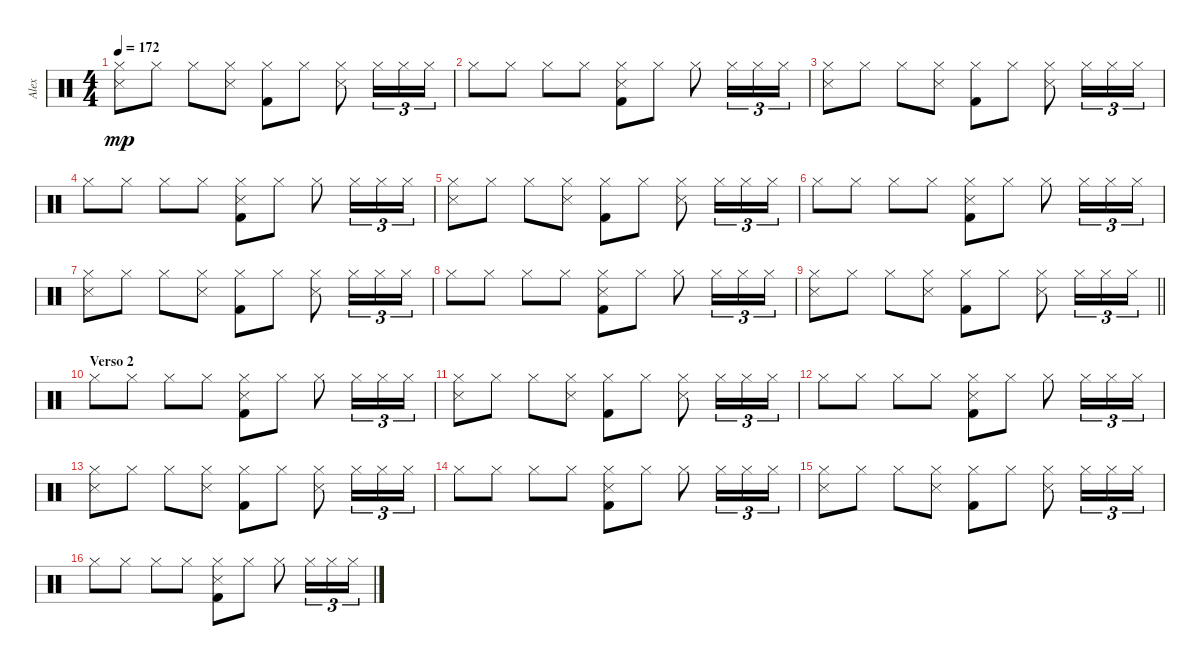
\track ("Alex" "Alex") {instrument percussion}
\staff {score}
\articulation defaults
\ts (4 4)
\tempo 172
\clef neutral
\ks c
("Hi-Hat (closed)" "Snare (side stick) 3").8{dy mp} "Hi-Hat (closed)".8 "Hi-Hat (closed)".8 ("Hi-Hat (closed)" "Snare (side stick) 3").8 ("Hi-Hat (closed)" "Kick (hit) 2").8 "Hi-Hat (closed)".8 ("Hi-Hat (closed)" "Snare (side stick) 3").8 "Hi-Hat (closed)".16{tu (3 2)} "Hi-Hat (closed)".16{tu (3 2)} "Hi-Hat (closed)".16{tu (3 2)} |
"Hi-Hat (closed)".8 "Hi-Hat (closed)".8 "Hi-Hat (closed)".8 "Hi-Hat (closed)".8 ("Hi-Hat (closed)" "Snare (side stick) 3" "Kick (hit) 2").8 "Hi-Hat (closed)".8 "Hi-Hat (closed)".8 "Hi-Hat (closed)".16{tu (3 2)} "Hi-Hat (closed)".16{tu (3 2)} "Hi-Hat (closed)".16{tu (3 2)} |
("Hi-Hat (closed)" "Snare (side stick) 3").8 "Hi-Hat (closed)".8 "Hi-Hat (closed)".8 ("Hi-Hat (closed)" "Snare (side stick) 3").8 ("Hi-Hat (closed)" "Kick (hit) 2").8 "Hi-Hat (closed)".8 ("Hi-Hat (closed)" "Snare (side stick) 3").8 "Hi-Hat (closed)".16{tu (3 2)} "Hi-Hat (closed)".16{tu (3 2)} "Hi-Hat (closed)".16{tu (3 2)} |
"Hi-Hat (closed)".8 "Hi-Hat (closed)".8 "Hi-Hat (closed)".8 "Hi-Hat (closed)".8 ("Hi-Hat (closed)" "Snare (side stick) 3" "Kick (hit) 2").8 "Hi-Hat (closed)".8 "Hi-Hat (closed)".8 "Hi-Hat (closed)".16{tu (3 2)} "Hi-Hat (closed)".16{tu (3 2)} "Hi-Hat (closed)".16{tu (3 2)} |
("Hi-Hat (closed)" "Snare (side stick) 3").8 "Hi-Hat (closed)".8 "Hi-Hat (closed)".8 ("Hi-Hat (closed)" "Snare (side stick) 3").8 ("Hi-Hat (closed)" "Kick (hit) 2").8 "Hi-Hat (closed)".8 ("Hi-Hat (closed)" "Snare (side stick) 3").8 "Hi-Hat (closed)".16{tu (3 2)} "Hi-Hat (closed)".16{tu (3 2)} "Hi-Hat (closed)".16{tu (3 2)} |
"Hi-Hat (closed)".8 "Hi-Hat (closed)".8 "Hi-Hat (closed)".8 "Hi-Hat (closed)".8 ("Hi-Hat (closed)" "Snare (side stick) 3" "Kick (hit) 2").8 "Hi-Hat (closed)".8 "Hi-Hat (closed)".8 "Hi-Hat (closed)".16{tu (3 2)} "Hi-Hat (closed)".16{tu (3 2)} "Hi-Hat (closed)".16{tu (3 2)} |
("Hi-Hat (closed)" "Snare (side stick) 3").8 "Hi-Hat (closed)".8 "Hi-Hat (closed)".8 ("Hi-Hat (closed)" "Snare (side stick) 3").8 ("Hi-Hat (closed)" "Kick (hit) 2").8 "Hi-Hat (closed)".8 ("Hi-Hat (closed)" "Snare (side stick) 3").8 "Hi-Hat (closed)".16{tu (3 2)} "Hi-Hat (closed)".16{tu (3 2)} "Hi-Hat (closed)".16{tu (3 2)} |
"Hi-Hat (closed)".8 "Hi-Hat (closed)".8 "Hi-Hat (closed)".8 "Hi-Hat (closed)".8 ("Hi-Hat (closed)" "Snare (side stick) 3" "Kick (hit) 2").8 "Hi-Hat (closed)".8 "Hi-Hat (closed)".8 "Hi-Hat (closed)".16{tu (3 2)} "Hi-Hat (closed)".16{tu (3 2)} "Hi-Hat (closed)".16{tu (3 2)} |
\barLineRight lightlight
("Hi-Hat (closed)" "Snare (side stick) 3").8 "Hi-Hat (closed)".8 "Hi-Hat (closed)".8 ("Hi-Hat (closed)" "Snare (side stick) 3").8 ("Hi-Hat (closed)" "Kick (hit) 2").8 "Hi-Hat (closed)".8 ("Hi-Hat (closed)" "Snare (side stick) 3").8 "Hi-Hat (closed)".16{tu (3 2)} "Hi-Hat (closed)".16{tu (3 2)} "Hi-Hat (closed)".16{tu (3 2)} |
\section ("" "Verso 2")
"Hi-Hat (closed)".8 "Hi-Hat (closed)".8 "Hi-Hat (closed)".8 "Hi-Hat (closed)".8 ("Hi-Hat (closed)" "Snare (side stick) 3" "Kick (hit) 2").8 "Hi-Hat (closed)".8 "Hi-Hat (closed)".8 "Hi-Hat (closed)".16{tu (3 2)} "Hi-Hat (closed)".16{tu (3 2)} "Hi-Hat (closed)".16{tu (3 2)} |
("Hi-Hat (closed)" "Snare (side stick) 3").8 "Hi-Hat (closed)".8 "Hi-Hat (closed)".8 ("Hi-Hat (closed)" "Snare (side stick) 3").8 ("Hi-Hat (closed)" "Kick (hit) 2").8 "Hi-Hat (closed)".8 ("Hi-Hat (closed)" "Snare (side stick) 3").8 "Hi-Hat (closed)".16{tu (3 2)} "Hi-Hat (closed)".16{tu (3 2)} "Hi-Hat (closed)".16{tu (3 2)} |
"Hi-Hat (closed)".8 "Hi-Hat (closed)".8 "Hi-Hat (closed)".8 "Hi-Hat (closed)".8 ("Hi-Hat (closed)" "Snare (side stick) 3" "Kick (hit) 2").8 "Hi-Hat (closed)".8 "Hi-Hat (closed)".8 "Hi-Hat (closed)".16{tu (3 2)} "Hi-Hat (closed)".16{tu (3 2)} "Hi-Hat (closed)".16{tu (3 2)} |
("Hi-Hat (closed)" "Snare (side stick) 3").8 "Hi-Hat (closed)".8 "Hi-Hat (closed)".8 ("Hi-Hat (closed)" "Snare (side stick) 3").8 ("Hi-Hat (closed)" "Kick (hit) 2").8 "Hi-Hat (closed)".8 ("Hi-Hat (closed)" "Snare (side stick) 3").8 "Hi-Hat (closed)".16{tu (3 2)} "Hi-Hat (closed)".16{tu (3 2)} "Hi-Hat (closed)".16{tu (3 2)} |
"Hi-Hat (closed)".8 "Hi-Hat (closed)".8 "Hi-Hat (closed)".8 "Hi-Hat (closed)".8 ("Hi-Hat (closed)" "Snare (side stick) 3" "Kick (hit) 2").8 "Hi-Hat (closed)".8 "Hi-Hat (closed)".8 "Hi-Hat (closed)".16{tu (3 2)} "Hi-Hat (closed)".16{tu (3 2)} "Hi-Hat (closed)".16{tu (3 2)} |
("Hi-Hat (closed)" "Snare (side stick) 3").8 "Hi-Hat (closed)".8 "Hi-Hat (closed)".8 ("Hi-Hat (closed)" "Snare (side stick) 3").8 ("Hi-Hat (closed)" "Kick (hit) 2").8 "Hi-Hat (closed)".8 ("Hi-Hat (closed)" "Snare (side stick) 3").8 "Hi-Hat (closed)".16{tu (3 2)} "Hi-Hat (closed)".16{tu (3 2)} "Hi-Hat (closed)".16{tu (3 2)} |
"Hi-Hat (closed)".8 "Hi-Hat (closed)".8 "Hi-Hat (closed)".8 "Hi-Hat (closed)".8 ("Hi-Hat (closed)" "Snare (side stick) 3" "Kick (hit) 2").8 "Hi-Hat (closed)".8 "Hi-Hat (closed)".8 "Hi-Hat (closed)".16{tu (3 2)} "Hi-Hat (closed)".16{tu (3 2)} "Hi-Hat (closed)".16{tu (3 2)}
